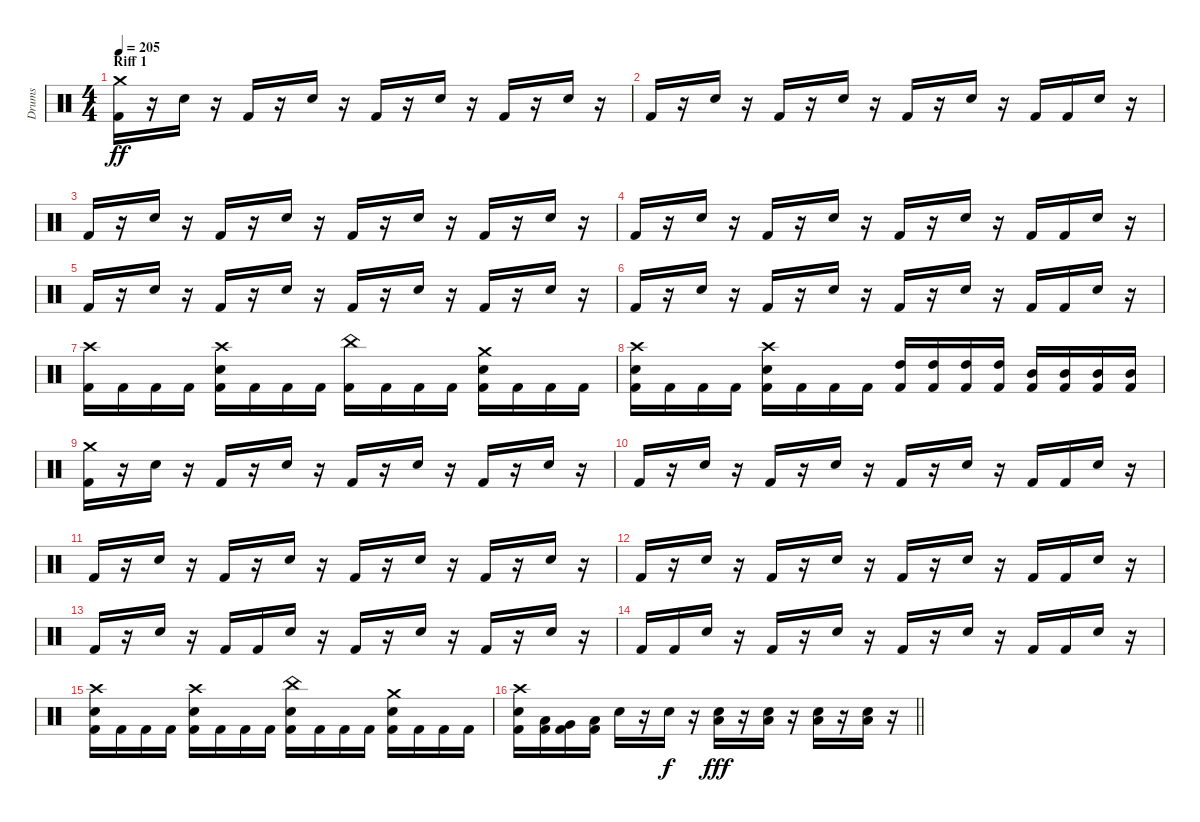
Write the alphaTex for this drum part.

\track ("Drums" "Drums") {instrument percussion}
\staff {score}
\articulation defaults
\ts (4 4)
\section ("" "Riff 1")
\tempo 205
\clef neutral
\ks c
("Crash medium (hit)" "Kick (hit) 2").16{dy ff} r.16 "Snare (hit) 2".16 r.16 "Kick (hit) 2".16 r.16 "Snare (hit) 2".16 r.16 "Kick (hit) 2".16 r.16 "Snare (hit) 2".16 r.16 "Kick (hit) 2".16 r.16 "Snare (hit) 2".16 r.16 |
"Kick (hit) 2".16 r.16 "Snare (hit) 2".16 r.16 "Kick (hit) 2".16 r.16 "Snare (hit) 2".16 r.16 "Kick (hit) 2".16 r.16 "Snare (hit) 2".16 r.16 "Kick (hit) 2".16 "Kick (hit) 2".16 "Snare (hit) 2".16 r.16 |
"Kick (hit) 2".16 r.16 "Snare (hit) 2".16 r.16 "Kick (hit) 2".16 r.16 "Snare (hit) 2".16 r.16 "Kick (hit) 2".16 r.16 "Snare (hit) 2".16 r.16 "Kick (hit) 2".16 r.16 "Snare (hit) 2".16 r.16 |
"Kick (hit) 2".16 r.16 "Snare (hit) 2".16 r.16 "Kick (hit) 2".16 r.16 "Snare (hit) 2".16 r.16 "Kick (hit) 2".16 r.16 "Snare (hit) 2".16 r.16 "Kick (hit) 2".16 "Kick (hit) 2".16 "Snare (hit) 2".16 r.16 |
"Kick (hit) 2".16 r.16 "Snare (hit) 2".16 r.16 "Kick (hit) 2".16 r.16 "Snare (hit) 2".16 r.16 "Kick (hit) 2".16 r.16 "Snare (hit) 2".16 r.16 "Kick (hit) 2".16 r.16 "Snare (hit) 2".16 r.16 |
"Kick (hit) 2".16 r.16 "Snare (hit) 2".16 r.16 "Kick (hit) 2".16 r.16 "Snare (hit) 2".16 r.16 "Kick (hit) 2".16 r.16 "Snare (hit) 2".16 r.16 "Kick (hit) 2".16 "Kick (hit) 2".16 "Snare (hit) 2".16 r.16 |
("Crash high (hit)" "Kick (hit) 2").16 "Kick (hit) 2".16 "Kick (hit) 2".16 "Kick (hit) 2".16 ("Crash high (hit)" "Kick (hit) 2" "Snare (hit) 2").16 "Kick (hit) 2".16 "Kick (hit) 2".16 "Kick (hit) 2".16 ("China (hit)" "Kick (hit) 2").16 "Kick (hit) 2".16 "Kick (hit) 2".16 "Kick (hit) 2".16 ("Crash medium (hit)" "Kick (hit) 2" "Snare (hit) 2").16 "Kick (hit) 2".16 "Kick (hit) 2".16 "Kick (hit) 2".16 |
("Crash high (hit)" "Kick (hit) 2" "Snare (hit) 2").16 "Kick (hit) 2".16 "Kick (hit) 2".16 "Kick (hit) 2".16 ("Crash high (hit)" "Kick (hit) 2" "Snare (hit) 2").16 "Kick (hit) 2".16 "Kick (hit) 2".16 "Kick (hit) 2".16 ("Kick (hit) 2" "High Tom (hit)").16 ("Kick (hit) 2" "High Tom (hit)").16 ("Kick (hit) 2" "High Tom (hit)").16 ("Kick (hit) 2" "High Tom (hit)").16 ("Kick (hit) 2" "Mid Tom (hit)").16 ("Kick (hit) 2" "Mid Tom (hit)").16 ("Kick (hit) 2" "Mid Tom (hit)").16 ("Kick (hit) 2" "Mid Tom (hit)").16 |
("Crash medium (hit)" "Kick (hit) 2").16 r.16 "Snare (hit) 2".16 r.16 "Kick (hit) 2".16 r.16 "Snare (hit) 2".16 r.16 "Kick (hit) 2".16 r.16 "Snare (hit) 2".16 r.16 "Kick (hit) 2".16 r.16 "Snare (hit) 2".16 r.16 |
"Kick (hit) 2".16 r.16 "Snare (hit) 2".16 r.16 "Kick (hit) 2".16 r.16 "Snare (hit) 2".16 r.16 "Kick (hit) 2".16 r.16 "Snare (hit) 2".16 r.16 "Kick (hit) 2".16 "Kick (hit) 2".16 "Snare (hit) 2".16 r.16 |
"Kick (hit) 2".16 r.16 "Snare (hit) 2".16 r.16 "Kick (hit) 2".16 r.16 "Snare (hit) 2".16 r.16 "Kick (hit) 2".16 r.16 "Snare (hit) 2".16 r.16 "Kick (hit) 2".16 r.16 "Snare (hit) 2".16 r.16 |
"Kick (hit) 2".16 r.16 "Snare (hit) 2".16 r.16 "Kick (hit) 2".16 r.16 "Snare (hit) 2".16 r.16 "Kick (hit) 2".16 r.16 "Snare (hit) 2".16 r.16 "Kick (hit) 2".16 "Kick (hit) 2".16 "Snare (hit) 2".16 r.16 |
"Kick (hit) 2".16 r.16 "Snare (hit) 2".16 r.16 "Kick (hit) 2".16 "Kick (hit) 2".16 "Snare (hit) 2".16 r.16 "Kick (hit) 2".16 r.16 "Snare (hit) 2".16 r.16 "Kick (hit) 2".16 r.16 "Snare (hit) 2".16 r.16 |
"Kick (hit) 2".16 "Kick (hit) 2".16 "Snare (hit) 2".16 r.16 "Kick (hit) 2".16 r.16 "Snare (hit) 2".16 r.16 "Kick (hit) 2".16 r.16 "Snare (hit) 2".16 r.16 "Kick (hit) 2".16 "Kick (hit) 2".16 "Snare (hit) 2".16 r.16 |
("Crash high (hit)" "Kick (hit) 2" "Snare (hit) 2").16 "Kick (hit) 2".16 "Kick (hit) 2".16 "Kick (hit) 2".16 ("Crash high (hit)" "Kick (hit) 2" "Snare (hit) 2").16 "Kick (hit) 2".16 "Kick (hit) 2".16 "Kick (hit) 2".16 ("China (hit)" "Kick (hit) 2" "Snare (hit) 2").16 "Kick (hit) 2".16 "Kick (hit) 2".16 "Kick (hit) 2".16 ("Crash medium (hit)" "Kick (hit) 2" "Snare (hit) 2").16 "Kick (hit) 2".16 "Kick (hit) 2".16 "Kick (hit) 2".16 |
\barLineRight lightlight
("Crash high (hit)" "Kick (hit) 2" "Snare (hit) 2").16 ("Kick (hit) 2" "Low Tom (hit)").16 ("Kick (hit) 2" "Very Low Tom (hit)").16 ("Kick (hit) 2" "Low Floor Tom (hit)").16 "Snare (hit) 2".16 r.16 "Snare (hit) 2".16{dy f} r.16 ("Snare (hit) 2" "Low Tom (hit)").16{dy fff} r.16 ("Snare (hit) 2" "Low Tom (hit)").16 r.16 ("Snare (hit) 2" "Low Tom (hit)").16 r.16 ("Snare (hit) 2" "Low Tom (hit)").16 r.16
